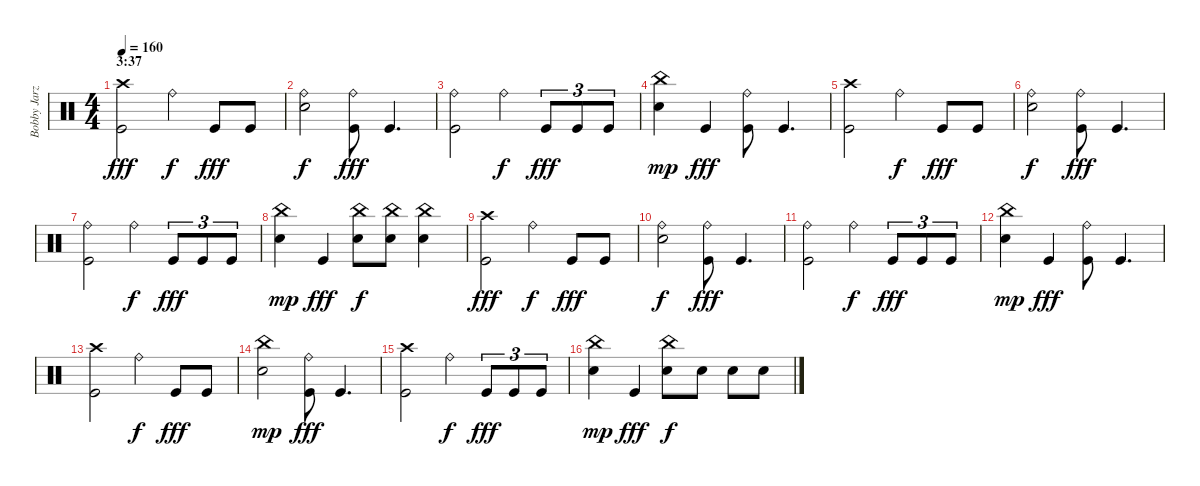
\track ("Bobby Jarzombek" "Bobby Jarz") {instrument percussion}
\staff {score}
\articulation defaults
\ts (4 4)
\section ("" "3:37")
\tempo 160
\clef neutral
\ks c
("Crash high (hit)" "Kick (hit)").2{dy fff} "Ride (bell)".4{dy f} "Kick (hit)".8{dy fff} "Kick (hit)".8 |
("Ride (bell)" "Electric Snare (hit)").2{dy f} ("Ride (bell)" "Kick (hit)").8{dy fff} "Kick (hit)".4{d} |
("Ride (bell)" "Kick (hit)").2 "Ride (bell)".4{dy f} "Kick (hit)".8{tu (3 2) dy fff} "Kick (hit)".8{tu (3 2)} "Kick (hit)".8{tu (3 2)} |
("China (hit)" "Electric Snare (hit)").4{dy mp} "Kick (hit)".4{dy fff} ("Ride (bell)" "Kick (hit)").8 "Kick (hit)".4{d} |
("Crash high (hit)" "Kick (hit)").2 "Ride (bell)".4{dy f} "Kick (hit)".8{dy fff} "Kick (hit)".8 |
("Ride (bell)" "Electric Snare (hit)").2{dy f} ("Ride (bell)" "Kick (hit)").8{dy fff} "Kick (hit)".4{d} |
("Ride (bell)" "Kick (hit)").2 "Ride (bell)".4{dy f} "Kick (hit)".8{tu (3 2) dy fff} "Kick (hit)".8{tu (3 2)} "Kick (hit)".8{tu (3 2)} |
("China (hit)" "Electric Snare (hit)").4{dy mp} "Kick (hit)".4{dy fff} ("China (hit)" "Electric Snare (hit)").8{dy f} ("China (hit)" "Electric Snare (hit)").8 ("China (hit)" "Electric Snare (hit)").4 |
("Crash high (hit)" "Kick (hit)").2{dy fff} "Ride (bell)".4{dy f} "Kick (hit)".8{dy fff} "Kick (hit)".8 |
("Ride (bell)" "Electric Snare (hit)").2{dy f} ("Ride (bell)" "Kick (hit)").8{dy fff} "Kick (hit)".4{d} |
("Ride (bell)" "Kick (hit)").2 "Ride (bell)".4{dy f} "Kick (hit)".8{tu (3 2) dy fff} "Kick (hit)".8{tu (3 2)} "Kick (hit)".8{tu (3 2)} |
("China (hit)" "Electric Snare (hit)").4{dy mp} "Kick (hit)".4{dy fff} ("Ride (bell)" "Kick (hit)").8 "Kick (hit)".4{d} |
("Crash high (hit)" "Kick (hit)").2 "Ride (bell)".4{dy f} "Kick (hit)".8{dy fff} "Kick (hit)".8 |
("China (hit)" "Electric Snare (hit)").2{dy mp} ("Ride (bell)" "Kick (hit)").8{dy fff} "Kick (hit)".4{d} |
("Crash high (hit)" "Kick (hit)").2 "Ride (bell)".4{dy f} "Kick (hit)".8{tu (3 2) dy fff} "Kick (hit)".8{tu (3 2)} "Kick (hit)".8{tu (3 2)} |
("China (hit)" "Electric Snare (hit)").4{dy mp} "Kick (hit)".4{dy fff} ("China (hit)" "Electric Snare (hit)").8{dy f} "Electric Snare (hit)".8 "Electric Snare (hit)".8 "Electric Snare (hit)".8
